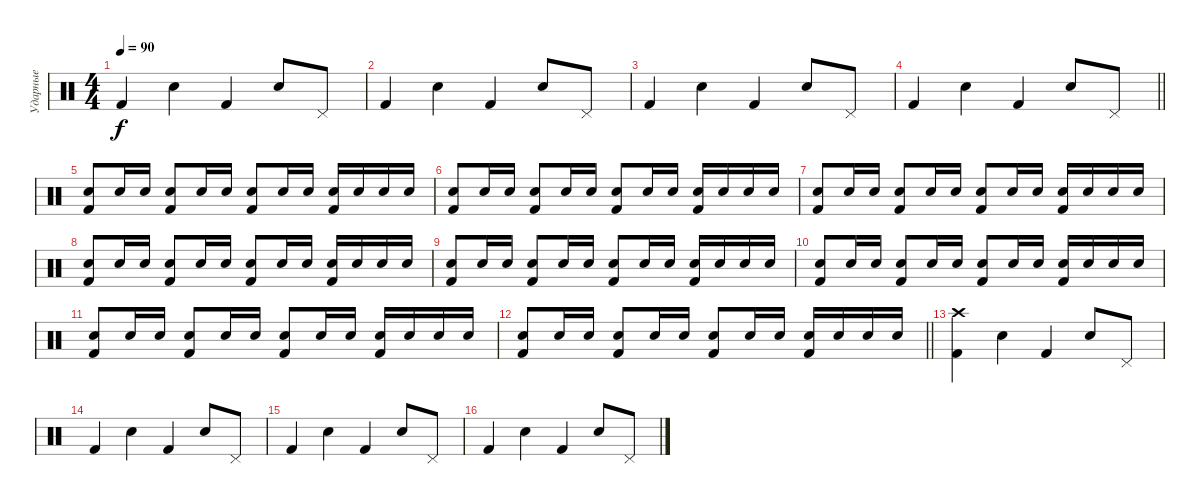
\track ("Ударные" "Ударные") {instrument percussion}
\staff {score}
\articulation defaults
\ts (4 4)
\tempo 90
\clef neutral
\ks c "Kick (hit) 2".4{dy f} "Electric Snare (hit)".4 "Kick (hit) 2".4 "Electric Snare (hit)".8 "Pedal Hi-Hat (hit)".8
|
"Kick (hit) 2".4 "Electric Snare (hit)".4 "Kick (hit) 2".4 "Electric Snare (hit)".8 "Pedal Hi-Hat (hit)".8 |
"Kick (hit) 2".4 "Electric Snare (hit)".4 "Kick (hit) 2".4 "Electric Snare (hit)".8 "Pedal Hi-Hat (hit)".8 |
\barLineRight lightlight "Kick (hit) 2".4 "Electric Snare (hit)".4 "Kick (hit) 2".4 "Electric Snare (hit)".8 "Pedal Hi-Hat (hit)".8
|
("Electric Snare (hit)" "Kick (hit) 2").8 "Electric Snare (hit)".16 "Electric Snare (hit)".16 ("Electric Snare (hit)" "Kick (hit) 2").8 "Electric Snare (hit)".16 "Electric Snare (hit)".16 ("Electric Snare (hit)" "Kick (hit) 2").8 "Electric Snare (hit)".16 "Electric Snare (hit)".16 ("Electric Snare (hit)" "Kick (hit) 2").16 "Electric Snare (hit)".16 "Electric Snare (hit)".16 "Electric Snare (hit)".16 |
("Electric Snare (hit)" "Kick (hit) 2").8 "Electric Snare (hit)".16 "Electric Snare (hit)".16 ("Electric Snare (hit)" "Kick (hit) 2").8 "Electric Snare (hit)".16 "Electric Snare (hit)".16 ("Electric Snare (hit)" "Kick (hit) 2").8 "Electric Snare (hit)".16 "Electric Snare (hit)".16 ("Electric Snare (hit)" "Kick (hit) 2").16 "Electric Snare (hit)".16 "Electric Snare (hit)".16 "Electric Snare (hit)".16 |
("Electric Snare (hit)" "Kick (hit) 2").8 "Electric Snare (hit)".16 "Electric Snare (hit)".16 ("Electric Snare (hit)" "Kick (hit) 2").8 "Electric Snare (hit)".16 "Electric Snare (hit)".16 ("Electric Snare (hit)" "Kick (hit) 2").8 "Electric Snare (hit)".16 "Electric Snare (hit)".16 ("Electric Snare (hit)" "Kick (hit) 2").16 "Electric Snare (hit)".16 "Electric Snare (hit)".16 "Electric Snare (hit)".16 |
("Electric Snare (hit)" "Kick (hit) 2").8 "Electric Snare (hit)".16 "Electric Snare (hit)".16 ("Electric Snare (hit)" "Kick (hit) 2").8 "Electric Snare (hit)".16 "Electric Snare (hit)".16 ("Electric Snare (hit)" "Kick (hit) 2").8 "Electric Snare (hit)".16 "Electric Snare (hit)".16 ("Electric Snare (hit)" "Kick (hit) 2").16 "Electric Snare (hit)".16 "Electric Snare (hit)".16 "Electric Snare (hit)".16 |
("Electric Snare (hit)" "Kick (hit) 2").8 "Electric Snare (hit)".16 "Electric Snare (hit)".16 ("Electric Snare (hit)" "Kick (hit) 2").8 "Electric Snare (hit)".16 "Electric Snare (hit)".16 ("Electric Snare (hit)" "Kick (hit) 2").8 "Electric Snare (hit)".16 "Electric Snare (hit)".16 ("Electric Snare (hit)" "Kick (hit) 2").16 "Electric Snare (hit)".16 "Electric Snare (hit)".16 "Electric Snare (hit)".16 |
("Electric Snare (hit)" "Kick (hit) 2").8 "Electric Snare (hit)".16 "Electric Snare (hit)".16 ("Electric Snare (hit)" "Kick (hit) 2").8 "Electric Snare (hit)".16 "Electric Snare (hit)".16 ("Electric Snare (hit)" "Kick (hit) 2").8 "Electric Snare (hit)".16 "Electric Snare (hit)".16 ("Electric Snare (hit)" "Kick (hit) 2").16 "Electric Snare (hit)".16 "Electric Snare (hit)".16 "Electric Snare (hit)".16 |
("Electric Snare (hit)" "Kick (hit) 2").8 "Electric Snare (hit)".16 "Electric Snare (hit)".16 ("Electric Snare (hit)" "Kick (hit) 2").8 "Electric Snare (hit)".16 "Electric Snare (hit)".16 ("Electric Snare (hit)" "Kick (hit) 2").8 "Electric Snare (hit)".16 "Electric Snare (hit)".16 ("Electric Snare (hit)" "Kick (hit) 2").16 "Electric Snare (hit)".16 "Electric Snare (hit)".16 "Electric Snare (hit)".16 |
\barLineRight lightlight
("Electric Snare (hit)" "Kick (hit) 2").8 "Electric Snare (hit)".16 "Electric Snare (hit)".16 ("Electric Snare (hit)" "Kick (hit) 2").8 "Electric Snare (hit)".16 "Electric Snare (hit)".16 ("Electric Snare (hit)" "Kick (hit) 2").8 "Electric Snare (hit)".16 "Electric Snare (hit)".16 ("Electric Snare (hit)" "Kick (hit) 2").16 "Electric Snare (hit)".16 "Electric Snare (hit)".16 "Electric Snare (hit)".16 |
("Crash high (hit)" "Kick (hit) 2").4 "Electric Snare (hit)".4 "Kick (hit) 2".4 "Electric Snare (hit)".8 "Pedal Hi-Hat (hit)".8 |
"Kick (hit) 2".4 "Electric Snare (hit)".4 "Kick (hit) 2".4 "Electric Snare (hit)".8 "Pedal Hi-Hat (hit)".8 |
"Kick (hit) 2".4 "Electric Snare (hit)".4 "Kick (hit) 2".4 "Electric Snare (hit)".8 "Pedal Hi-Hat (hit)".8 |
"Kick (hit) 2".4 "Electric Snare (hit)".4 "Kick (hit) 2".4 "Electric Snare (hit)".8 "Pedal Hi-Hat (hit)".8
